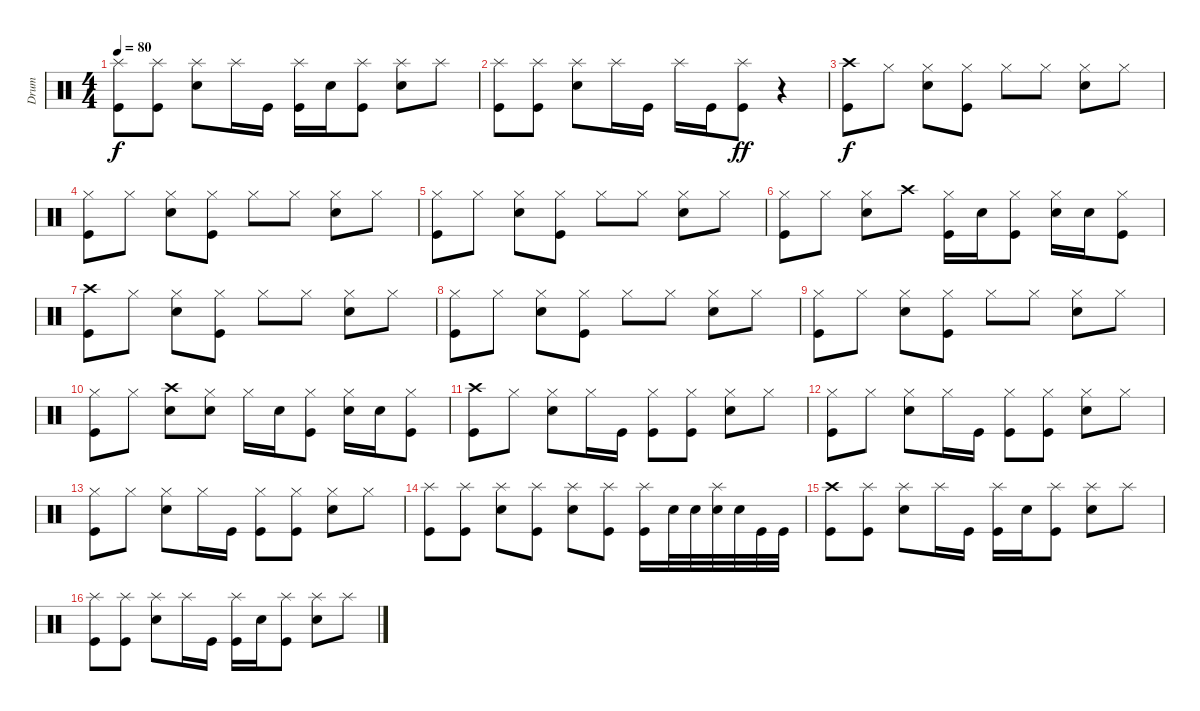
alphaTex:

\track ("Drum" "Drum") {instrument percussion}
\staff {score}
\articulation defaults
\ts (4 4)
\tempo 80
\clef neutral
\ks c
("Splash (hit)" "Kick (hit)").8{dy f} ("Splash (hit)" "Kick (hit)").8 ("Splash (hit)" "Electric Snare (hit)").8 "Splash (hit)".16 "Kick (hit)".16 ("Splash (hit)" "Kick (hit)").16 "Electric Snare (hit)".16 ("Splash (hit)" "Kick (hit)").8 ("Splash (hit)" "Electric Snare (hit)").8 "Splash (hit)".8 |
("Splash (hit)" "Kick (hit)").8 ("Splash (hit)" "Kick (hit)").8 ("Splash (hit)" "Electric Snare (hit)").8 "Splash (hit)".16 "Kick (hit)".16 "Splash (hit)".16 "Kick (hit)".16 ("Splash (hit)" "Kick (hit)").8{dy ff} r.4 |
("Crash high (hit)" "Kick (hit)").8{dy f} "Hi-Hat (closed)".8 ("Hi-Hat (closed)" "Snare (hit) 2").8 ("Hi-Hat (closed)" "Kick (hit)").8 "Hi-Hat (closed)".8 "Hi-Hat (closed)".8 ("Hi-Hat (closed)" "Snare (hit) 2").8 "Hi-Hat (closed)".8 |
("Hi-Hat (closed)" "Kick (hit)").8 "Hi-Hat (closed)".8 ("Hi-Hat (closed)" "Snare (hit) 2").8 ("Hi-Hat (closed)" "Kick (hit)").8 "Hi-Hat (closed)".8 "Hi-Hat (closed)".8 ("Hi-Hat (closed)" "Snare (hit) 2").8 "Hi-Hat (closed)".8 |
("Hi-Hat (closed)" "Kick (hit)").8 "Hi-Hat (closed)".8 ("Hi-Hat (closed)" "Snare (hit) 2").8 ("Hi-Hat (closed)" "Kick (hit)").8 "Hi-Hat (closed)".8 "Hi-Hat (closed)".8 ("Hi-Hat (closed)" "Snare (hit) 2").8 "Hi-Hat (closed)".8 |
("Hi-Hat (closed)" "Kick (hit)").8 "Hi-Hat (closed)".8 ("Hi-Hat (closed)" "Snare (hit) 2").8 "Crash high (hit)".8 ("Hi-Hat (closed)" "Kick (hit)").16 "Electric Snare (hit)".16 ("Hi-Hat (closed)" "Kick (hit)").8 ("Hi-Hat (closed)" "Electric Snare (hit)").16 "Electric Snare (hit)".16 ("Hi-Hat (closed)" "Kick (hit)").8 |
("Crash high (hit)" "Kick (hit)").8 "Hi-Hat (closed)".8 ("Hi-Hat (closed)" "Snare (hit) 2").8 ("Hi-Hat (closed)" "Kick (hit)").8 "Hi-Hat (closed)".8 "Hi-Hat (closed)".8 ("Hi-Hat (closed)" "Snare (hit) 2").8 "Hi-Hat (closed)".8 |
("Hi-Hat (closed)" "Kick (hit)").8 "Hi-Hat (closed)".8 ("Hi-Hat (closed)" "Snare (hit) 2").8 ("Hi-Hat (closed)" "Kick (hit)").8 "Hi-Hat (closed)".8 "Hi-Hat (closed)".8 ("Hi-Hat (closed)" "Snare (hit) 2").8 "Hi-Hat (closed)".8 |
("Hi-Hat (closed)" "Kick (hit)").8 "Hi-Hat (closed)".8 ("Hi-Hat (closed)" "Snare (hit) 2").8 ("Hi-Hat (closed)" "Kick (hit)").8 "Hi-Hat (closed)".8 "Hi-Hat (closed)".8 ("Hi-Hat (closed)" "Snare (hit) 2").8 "Hi-Hat (closed)".8 |
("Hi-Hat (closed)" "Kick (hit)").8 "Hi-Hat (closed)".8 ("Crash high (hit)" "Snare (hit) 2").8 ("Hi-Hat (closed)" "Electric Snare (hit)").8 "Hi-Hat (closed)".16 "Electric Snare (hit)".16 ("Hi-Hat (closed)" "Kick (hit)").8 ("Hi-Hat (closed)" "Electric Snare (hit)").16 "Electric Snare (hit)".16 ("Hi-Hat (closed)" "Kick (hit)").8 |
("Crash high (hit)" "Kick (hit)").8 "Hi-Hat (closed)".8 ("Hi-Hat (closed)" "Electric Snare (hit)").8 "Hi-Hat (closed)".16 "Kick (hit)".16 ("Hi-Hat (closed)" "Kick (hit)").8 ("Hi-Hat (closed)" "Kick (hit)").8 ("Hi-Hat (closed)" "Electric Snare (hit)").8 "Hi-Hat (closed)".8 |
("Hi-Hat (closed)" "Kick (hit)").8 "Hi-Hat (closed)".8 ("Hi-Hat (closed)" "Electric Snare (hit)").8 "Hi-Hat (closed)".16 "Kick (hit)".16 ("Hi-Hat (closed)" "Kick (hit)").8 ("Hi-Hat (closed)" "Kick (hit)").8 ("Hi-Hat (closed)" "Electric Snare (hit)").8 "Hi-Hat (closed)".8 |
("Hi-Hat (closed)" "Kick (hit)").8 "Hi-Hat (closed)".8 ("Hi-Hat (closed)" "Electric Snare (hit)").8 "Hi-Hat (closed)".16 "Kick (hit)".16 ("Hi-Hat (closed)" "Kick (hit)").8 ("Hi-Hat (closed)" "Kick (hit)").8 ("Hi-Hat (closed)" "Electric Snare (hit)").8 "Hi-Hat (closed)".8 |
("Splash (hit)" "Kick (hit)").8 ("Splash (hit)" "Kick (hit)").8 ("Splash (hit)" "Electric Snare (hit)").8 ("Splash (hit)" "Kick (hit)").8 ("Splash (hit)" "Electric Snare (hit)").8 ("Splash (hit)" "Kick (hit)").8 ("Splash (hit)" "Kick (hit)").16 "Electric Snare (hit)".32 "Electric Snare (hit)".32 ("Splash (hit)" "Electric Snare (hit)").32 "Electric Snare (hit)".32 "Kick (hit)".32 "Kick (hit)".32 |
("Crash high (hit)" "Kick (hit)").8 ("Splash (hit)" "Kick (hit)").8 ("Splash (hit)" "Electric Snare (hit)").8 "Splash (hit)".16 "Kick (hit)".16 ("Splash (hit)" "Kick (hit)").16 "Electric Snare (hit)".16 ("Splash (hit)" "Kick (hit)").8 ("Splash (hit)" "Electric Snare (hit)").8 "Splash (hit)".8 |
("Splash (hit)" "Kick (hit)").8 ("Splash (hit)" "Kick (hit)").8 ("Splash (hit)" "Electric Snare (hit)").8 "Splash (hit)".16 "Kick (hit)".16 ("Splash (hit)" "Kick (hit)").16 "Electric Snare (hit)".16 ("Splash (hit)" "Kick (hit)").8 ("Splash (hit)" "Electric Snare (hit)").8 "Splash (hit)".8
